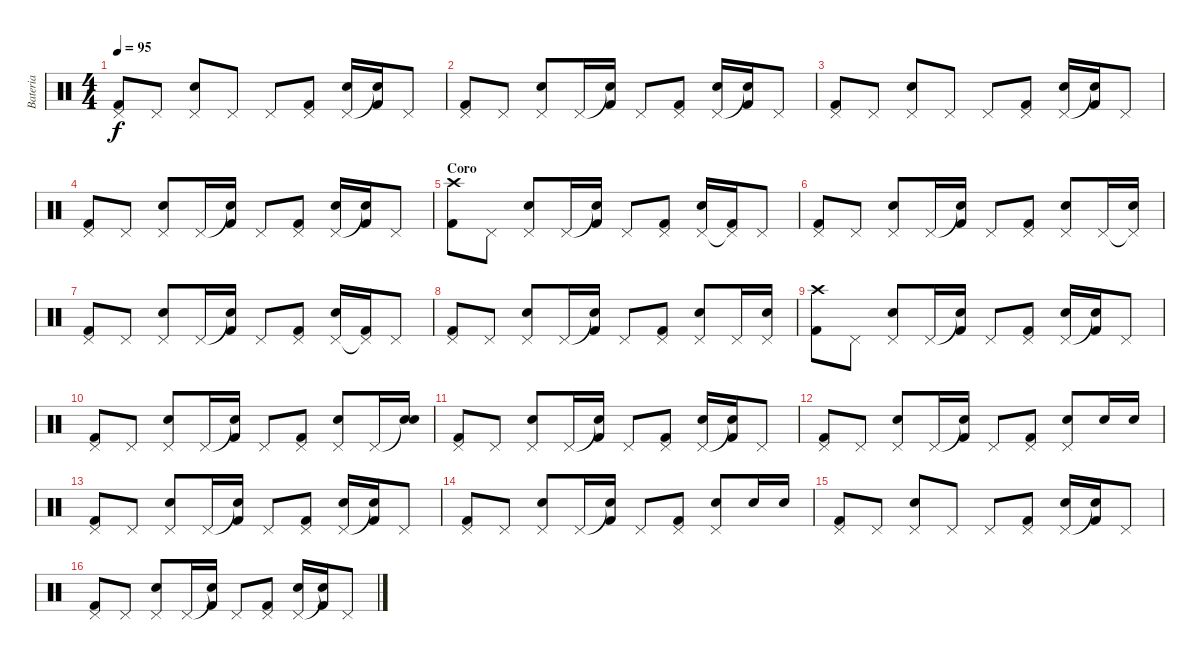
\track ("Bateria" "Bateria") {instrument percussion}
\staff {score}
\articulation defaults
\ts (4 4)
\tempo 95
\clef neutral
\ks c
("Pedal Hi-Hat (hit)" "Kick (hit) 2").8{dy f} "Pedal Hi-Hat (hit)".8 ("Pedal Hi-Hat (hit)" "Electric Snare (hit)").8 "Pedal Hi-Hat (hit)".8 "Pedal Hi-Hat (hit)".8 ("Pedal Hi-Hat (hit)" "Kick (hit) 2").8 ("Pedal Hi-Hat (hit)" "Electric Snare (hit)").16 ("Snare (hit)"{t} "Kick (hit) 2").16 "Pedal Hi-Hat (hit)".8 |
("Pedal Hi-Hat (hit)" "Kick (hit) 2").8 "Pedal Hi-Hat (hit)".8 ("Pedal Hi-Hat (hit)" "Electric Snare (hit)").8 "Pedal Hi-Hat (hit)".16 ("Snare (hit)"{t} "Kick (hit) 2").16 "Pedal Hi-Hat (hit)".8 ("Pedal Hi-Hat (hit)" "Kick (hit) 2").8 ("Pedal Hi-Hat (hit)" "Electric Snare (hit)").16 ("Snare (hit)"{t} "Kick (hit) 2").16 "Pedal Hi-Hat (hit)".8 |
("Pedal Hi-Hat (hit)" "Kick (hit) 2").8 "Pedal Hi-Hat (hit)".8 ("Pedal Hi-Hat (hit)" "Electric Snare (hit)").8 "Pedal Hi-Hat (hit)".8 "Pedal Hi-Hat (hit)".8 ("Pedal Hi-Hat (hit)" "Kick (hit) 2").8 ("Pedal Hi-Hat (hit)" "Electric Snare (hit)").16 ("Snare (hit)"{t} "Kick (hit) 2").16 "Pedal Hi-Hat (hit)".8 |
("Pedal Hi-Hat (hit)" "Kick (hit) 2").8 "Pedal Hi-Hat (hit)".8 ("Pedal Hi-Hat (hit)" "Electric Snare (hit)").8 "Pedal Hi-Hat (hit)".16 ("Snare (hit)"{t} "Kick (hit) 2").16 "Pedal Hi-Hat (hit)".8 ("Pedal Hi-Hat (hit)" "Kick (hit) 2").8 ("Pedal Hi-Hat (hit)" "Electric Snare (hit)").16 ("Snare (hit)"{t} "Kick (hit) 2").16 "Pedal Hi-Hat (hit)".8 |
\section ("" "Coro")
("Crash high (hit)" "Kick (hit) 2").8 "Pedal Hi-Hat (hit)".8 ("Pedal Hi-Hat (hit)" "Electric Snare (hit)").8 "Pedal Hi-Hat (hit)".16 ("Snare (hit)"{t} "Kick (hit) 2").16 "Pedal Hi-Hat (hit)".8 ("Pedal Hi-Hat (hit)" "Kick (hit) 2").8 ("Pedal Hi-Hat (hit)" "Electric Snare (hit)").16 ("Pedal Hi-Hat (hit)"{t} "Kick (hit) 2").16 "Pedal Hi-Hat (hit)".8 |
("Pedal Hi-Hat (hit)" "Kick (hit) 2").8 "Pedal Hi-Hat (hit)".8 ("Pedal Hi-Hat (hit)" "Electric Snare (hit)").8 "Pedal Hi-Hat (hit)".16 ("Snare (hit)"{t} "Kick (hit) 2").16 "Pedal Hi-Hat (hit)".8 ("Pedal Hi-Hat (hit)" "Kick (hit) 2").8 ("Pedal Hi-Hat (hit)" "Electric Snare (hit)").8 "Pedal Hi-Hat (hit)".16 ("Pedal Hi-Hat (hit)"{t} "Electric Snare (hit)").16 |
("Pedal Hi-Hat (hit)" "Kick (hit) 2").8 "Pedal Hi-Hat (hit)".8 ("Pedal Hi-Hat (hit)" "Electric Snare (hit)").8 "Pedal Hi-Hat (hit)".16 ("Snare (hit)"{t} "Kick (hit) 2").16 "Pedal Hi-Hat (hit)".8 ("Pedal Hi-Hat (hit)" "Kick (hit) 2").8 ("Pedal Hi-Hat (hit)" "Electric Snare (hit)").16 ("Pedal Hi-Hat (hit)"{t} "Kick (hit) 2").16 "Pedal Hi-Hat (hit)".8 |
("Pedal Hi-Hat (hit)" "Kick (hit) 2").8 "Pedal Hi-Hat (hit)".8 ("Pedal Hi-Hat (hit)" "Electric Snare (hit)").8 "Pedal Hi-Hat (hit)".16 ("Snare (hit)"{t} "Kick (hit) 2").16 "Pedal Hi-Hat (hit)".8 ("Pedal Hi-Hat (hit)" "Kick (hit) 2").8 ("Pedal Hi-Hat (hit)" "Electric Snare (hit)").8 "Pedal Hi-Hat (hit)".16 ("Pedal Hi-Hat (hit)" "Electric Snare (hit)").16 |
("Crash high (hit)" "Kick (hit) 2").8 "Pedal Hi-Hat (hit)".8 ("Pedal Hi-Hat (hit)" "Electric Snare (hit)").8 "Pedal Hi-Hat (hit)".16 ("Snare (hit)"{t} "Kick (hit) 2").16 "Pedal Hi-Hat (hit)".8 ("Pedal Hi-Hat (hit)" "Kick (hit) 2").8 ("Pedal Hi-Hat (hit)" "Electric Snare (hit)").16 ("Snare (hit)"{t} "Kick (hit) 2").16 "Pedal Hi-Hat (hit)".8 |
("Pedal Hi-Hat (hit)" "Kick (hit) 2").8 "Pedal Hi-Hat (hit)".8 ("Pedal Hi-Hat (hit)" "Electric Snare (hit)").8 "Pedal Hi-Hat (hit)".16 ("Snare (hit)"{t} "Kick (hit) 2").16 "Pedal Hi-Hat (hit)".8 ("Pedal Hi-Hat (hit)" "Kick (hit) 2").8 ("Pedal Hi-Hat (hit)" "Electric Snare (hit)").8 "Pedal Hi-Hat (hit)".16 ("Snare (hit)"{t} "Electric Snare (hit)").16 |
("Pedal Hi-Hat (hit)" "Kick (hit) 2").8 "Pedal Hi-Hat (hit)".8 ("Pedal Hi-Hat (hit)" "Electric Snare (hit)").8 "Pedal Hi-Hat (hit)".16 ("Snare (hit)"{t} "Kick (hit) 2").16 "Pedal Hi-Hat (hit)".8 ("Pedal Hi-Hat (hit)" "Kick (hit) 2").8 ("Pedal Hi-Hat (hit)" "Electric Snare (hit)").16 ("Snare (hit)"{t} "Kick (hit) 2").16 "Pedal Hi-Hat (hit)".8 |
("Pedal Hi-Hat (hit)" "Kick (hit) 2").8 "Pedal Hi-Hat (hit)".8 ("Pedal Hi-Hat (hit)" "Electric Snare (hit)").8 "Pedal Hi-Hat (hit)".16 ("Snare (hit)"{t} "Kick (hit) 2").16 "Pedal Hi-Hat (hit)".8 ("Pedal Hi-Hat (hit)" "Kick (hit) 2").8 ("Pedal Hi-Hat (hit)" "Electric Snare (hit)").8 "Electric Snare (hit)".16 "Electric Snare (hit)".16 |
("Pedal Hi-Hat (hit)" "Kick (hit) 2").8 "Pedal Hi-Hat (hit)".8 ("Pedal Hi-Hat (hit)" "Electric Snare (hit)").8 "Pedal Hi-Hat (hit)".16 ("Snare (hit)"{t} "Kick (hit) 2").16 "Pedal Hi-Hat (hit)".8 ("Pedal Hi-Hat (hit)" "Kick (hit) 2").8 ("Pedal Hi-Hat (hit)" "Electric Snare (hit)").16 ("Snare (hit)"{t} "Kick (hit) 2").16 "Pedal Hi-Hat (hit)".8 |
("Pedal Hi-Hat (hit)" "Kick (hit) 2").8 "Pedal Hi-Hat (hit)".8 ("Pedal Hi-Hat (hit)" "Electric Snare (hit)").8 "Pedal Hi-Hat (hit)".16 ("Snare (hit)"{t} "Kick (hit) 2").16 "Pedal Hi-Hat (hit)".8 ("Pedal Hi-Hat (hit)" "Kick (hit) 2").8 ("Pedal Hi-Hat (hit)" "Electric Snare (hit)").8 "Electric Snare (hit)".16 "Electric Snare (hit)".16 |
("Pedal Hi-Hat (hit)" "Kick (hit) 2").8 "Pedal Hi-Hat (hit)".8 ("Pedal Hi-Hat (hit)" "Electric Snare (hit)").8 "Pedal Hi-Hat (hit)".8 "Pedal Hi-Hat (hit)".8 ("Pedal Hi-Hat (hit)" "Kick (hit) 2").8 ("Pedal Hi-Hat (hit)" "Electric Snare (hit)").16 ("Snare (hit)"{t} "Kick (hit) 2").16 "Pedal Hi-Hat (hit)".8 |
\section ("" "")
("Pedal Hi-Hat (hit)" "Kick (hit) 2").8 "Pedal Hi-Hat (hit)".8 ("Pedal Hi-Hat (hit)" "Electric Snare (hit)").8 "Pedal Hi-Hat (hit)".16 ("Snare (hit)"{t} "Kick (hit) 2").16 "Pedal Hi-Hat (hit)".8 ("Pedal Hi-Hat (hit)" "Kick (hit) 2").8 ("Pedal Hi-Hat (hit)" "Electric Snare (hit)").16 ("Snare (hit)"{t} "Kick (hit) 2").16 "Pedal Hi-Hat (hit)".8
